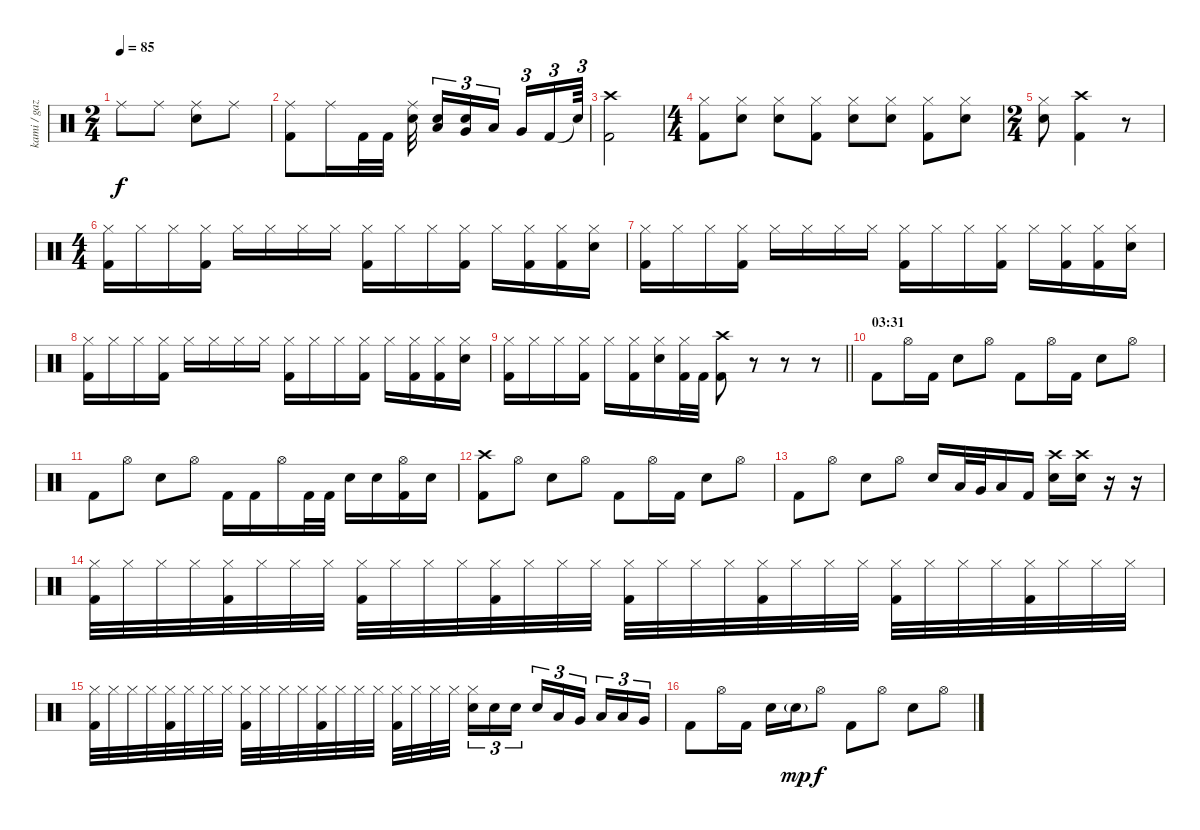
\track ("kami / gaz (?)" "kami / gaz") {instrument percussion}
\staff {score}
\articulation defaults
\ts (2 4)
\tempo 85
\clef neutral
\ks c "Ride (middle)".8{dy f} "Ride (middle)".8
("Electric Snare (hit)" "Ride (middle)").8 "Ride (middle)".8 |
("Kick (hit) 2" "Ride (middle)").8 "Ride (middle)".16 "Kick (hit) 2".32 "Kick (hit) 2".32 ("Electric Snare (hit)" "Ride (middle)").32 ("Low Tom (hit)" "Electric Snare (hit)").16{tu (3 2)} ("Very Low Tom (hit)" "Electric Snare (hit)").16{tu (3 2)} "Low Floor Tom (hit)".16{tu (3 2)} "Very Low Tom (hit)".16{tu (3 2)} "Kick (hit) 2".16{tu (3 2)} "Snare (hit)"{t}.64{tu (3 2)} |
("Kick (hit) 2" "Crash high (hit)").2 |
\ts (4 4)
("Kick (hit) 2" "Hi-Hat (closed)").8 ("Electric Snare (hit)" "Hi-Hat (closed)").8 ("Electric Snare (hit)" "Hi-Hat (closed)").8 ("Kick (hit) 2" "Hi-Hat (closed)").8 ("Electric Snare (hit)" "Hi-Hat (closed)").8 ("Electric Snare (hit)" "Hi-Hat (closed)").8 ("Kick (hit) 2" "Hi-Hat (closed)").8 ("Electric Snare (hit)" "Hi-Hat (closed)").8 |
\ts (2 4)
("Electric Snare (hit)" "Hi-Hat (closed)").8 ("Kick (hit) 2" "Crash high (hit)").4 r.8 |
\ts (4 4)
("Kick (hit) 2" "Hi-Hat (closed)").16 "Hi-Hat (closed)".16 "Hi-Hat (closed)".16 ("Kick (hit) 2" "Hi-Hat (closed)").16 "Hi-Hat (closed)".16 "Hi-Hat (closed)".16 "Hi-Hat (closed)".16 "Hi-Hat (closed)".16 ("Kick (hit) 2" "Hi-Hat (closed)").16 "Hi-Hat (closed)".16 "Hi-Hat (closed)".16 ("Kick (hit) 2" "Hi-Hat (closed)").16 "Hi-Hat (closed)".16 ("Kick (hit) 2" "Hi-Hat (closed)").16 ("Kick (hit) 2" "Hi-Hat (closed)").16 ("Electric Snare (hit)" "Hi-Hat (closed)").16 |
("Kick (hit) 2" "Hi-Hat (closed)").16 "Hi-Hat (closed)".16 "Hi-Hat (closed)".16 ("Kick (hit) 2" "Hi-Hat (closed)").16 "Hi-Hat (closed)".16 "Hi-Hat (closed)".16 "Hi-Hat (closed)".16 "Hi-Hat (closed)".16 ("Kick (hit) 2" "Hi-Hat (closed)").16 "Hi-Hat (closed)".16 "Hi-Hat (closed)".16 ("Kick (hit) 2" "Hi-Hat (closed)").16 "Hi-Hat (closed)".16 ("Kick (hit) 2" "Hi-Hat (closed)").16 ("Kick (hit) 2" "Hi-Hat (closed)").16 ("Electric Snare (hit)" "Hi-Hat (closed)").16 |
("Kick (hit) 2" "Hi-Hat (closed)").16 "Hi-Hat (closed)".16 "Hi-Hat (closed)".16 ("Kick (hit) 2" "Hi-Hat (closed)").16 "Hi-Hat (closed)".16 "Hi-Hat (closed)".16 "Hi-Hat (closed)".16 "Hi-Hat (closed)".16 ("Kick (hit) 2" "Hi-Hat (closed)").16 "Hi-Hat (closed)".16 "Hi-Hat (closed)".16 ("Kick (hit) 2" "Hi-Hat (closed)").16 "Hi-Hat (closed)".16 ("Kick (hit) 2" "Hi-Hat (closed)").16 ("Kick (hit) 2" "Hi-Hat (closed)").16 ("Electric Snare (hit)" "Hi-Hat (closed)").16 |
\barLineRight lightlight
("Kick (hit) 2" "Hi-Hat (closed)").16 "Hi-Hat (closed)".16 "Hi-Hat (closed)".16 ("Kick (hit) 2" "Hi-Hat (closed)").16 "Hi-Hat (closed)".16 ("Kick (hit) 2" "Hi-Hat (closed)").16 ("Electric Snare (hit)" "Hi-Hat (closed)").16 ("Kick (hit) 2" "Hi-Hat (closed)").32 "Kick (hit) 2".32 ("Kick (hit) 2" "Crash high (hit)").8 r.8 r.8 r.8 |
\section ("" "03:31")
"Kick (hit) 2".8 "Hi-Hat (open)".16 "Kick (hit) 2".16 "Electric Snare (hit)".8 "Hi-Hat (open)".8 "Kick (hit) 2".8 "Hi-Hat (open)".16 "Kick (hit) 2".16 "Electric Snare (hit)".8 "Hi-Hat (open)".8 |
"Kick (hit) 2".8 "Hi-Hat (open)".8 "Electric Snare (hit)".8 "Hi-Hat (open)".8 "Kick (hit) 2".16 "Kick (hit) 2".16 "Hi-Hat (open)".16 "Kick (hit) 2".32 "Kick (hit) 2".32 "Electric Snare (hit)".16 "Electric Snare (hit)".16 ("Hi-Hat (open)" "Kick (hit) 2").16 "Electric Snare (hit)".16 |
("Kick (hit) 2" "Crash high (hit)").8 "Hi-Hat (open)".8 "Electric Snare (hit)".8 "Hi-Hat (open)".8 "Kick (hit) 2".8 "Hi-Hat (open)".16 "Kick (hit) 2".16 "Electric Snare (hit)".8 "Hi-Hat (open)".8 |
"Kick (hit) 2".8 "Hi-Hat (open)".8 "Electric Snare (hit)".8 "Hi-Hat (open)".8 "Electric Snare (hit)".16 "Low Tom (hit)".32 "Very Low Tom (hit)".32 "Low Floor Tom (hit)".16 "Kick (hit) 2".16 ("Electric Snare (hit)" "Crash high (hit)").16 ("Electric Snare (hit)" "Crash high (hit)").16 r.16 r.16 |
("Kick (hit) 2" "Hi-Hat (closed)").32 "Hi-Hat (closed)".32 "Hi-Hat (closed)".32 "Hi-Hat (closed)".32 ("Kick (hit) 2" "Hi-Hat (closed)").32 "Hi-Hat (closed)".32 "Hi-Hat (closed)".32 "Hi-Hat (closed)".32 ("Kick (hit) 2" "Hi-Hat (closed)").32 "Hi-Hat (closed)".32 "Hi-Hat (closed)".32 "Hi-Hat (closed)".32 ("Kick (hit) 2" "Hi-Hat (closed)").32 "Hi-Hat (closed)".32 "Hi-Hat (closed)".32 "Hi-Hat (closed)".32 ("Kick (hit) 2" "Hi-Hat (closed)").32 "Hi-Hat (closed)".32 "Hi-Hat (closed)".32 "Hi-Hat (closed)".32 ("Kick (hit) 2" "Hi-Hat (closed)").32 "Hi-Hat (closed)".32 "Hi-Hat (closed)".32 "Hi-Hat (closed)".32 ("Kick (hit) 2" "Hi-Hat (closed)").32 "Hi-Hat (closed)".32 "Hi-Hat (closed)".32 "Hi-Hat (closed)".32 ("Kick (hit) 2" "Hi-Hat (closed)").32 "Hi-Hat (closed)".32 "Hi-Hat (closed)".32 "Hi-Hat (closed)".32 |
("Kick (hit) 2" "Hi-Hat (closed)").32 "Hi-Hat (closed)".32 "Hi-Hat (closed)".32 "Hi-Hat (closed)".32 ("Kick (hit) 2" "Hi-Hat (closed)").32 "Hi-Hat (closed)".32 "Hi-Hat (closed)".32 "Hi-Hat (closed)".32 ("Kick (hit) 2" "Hi-Hat (closed)").32 "Hi-Hat (closed)".32 "Hi-Hat (closed)".32 "Hi-Hat (closed)".32 ("Kick (hit) 2" "Hi-Hat (closed)").32 "Hi-Hat (closed)".32 "Hi-Hat (closed)".32 "Hi-Hat (closed)".32 ("Kick (hit) 2" "Hi-Hat (closed)").32 "Hi-Hat (closed)".32 "Hi-Hat (closed)".32 "Hi-Hat (closed)".32 ("Electric Snare (hit)" "Hi-Hat (closed)").16{tu (3 2)} "Electric Snare (hit)".16{tu (3 2)} "Electric Snare (hit)".16{tu (3 2)} "Electric Snare (hit)".16{tu (3 2)} "Low Tom (hit)".16{tu (3 2)} "Very Low Tom (hit)".16{tu (3 2)} "Low Floor Tom (hit)".16{tu (3 2)} "Low Tom (hit)".16{tu (3 2)} "Very Low Tom (hit)".16{tu (3 2)} |
"Kick (hit) 2".8 "Hi-Hat (open)".16 "Kick (hit) 2".16 "Electric Snare (hit)".16 "Electric Snare (hit)"{g}.16{dy mp} "Hi-Hat (open)".8{dy f} "Kick (hit) 2".8 "Hi-Hat (open)".8 "Electric Snare (hit)".8 "Hi-Hat (open)".8
